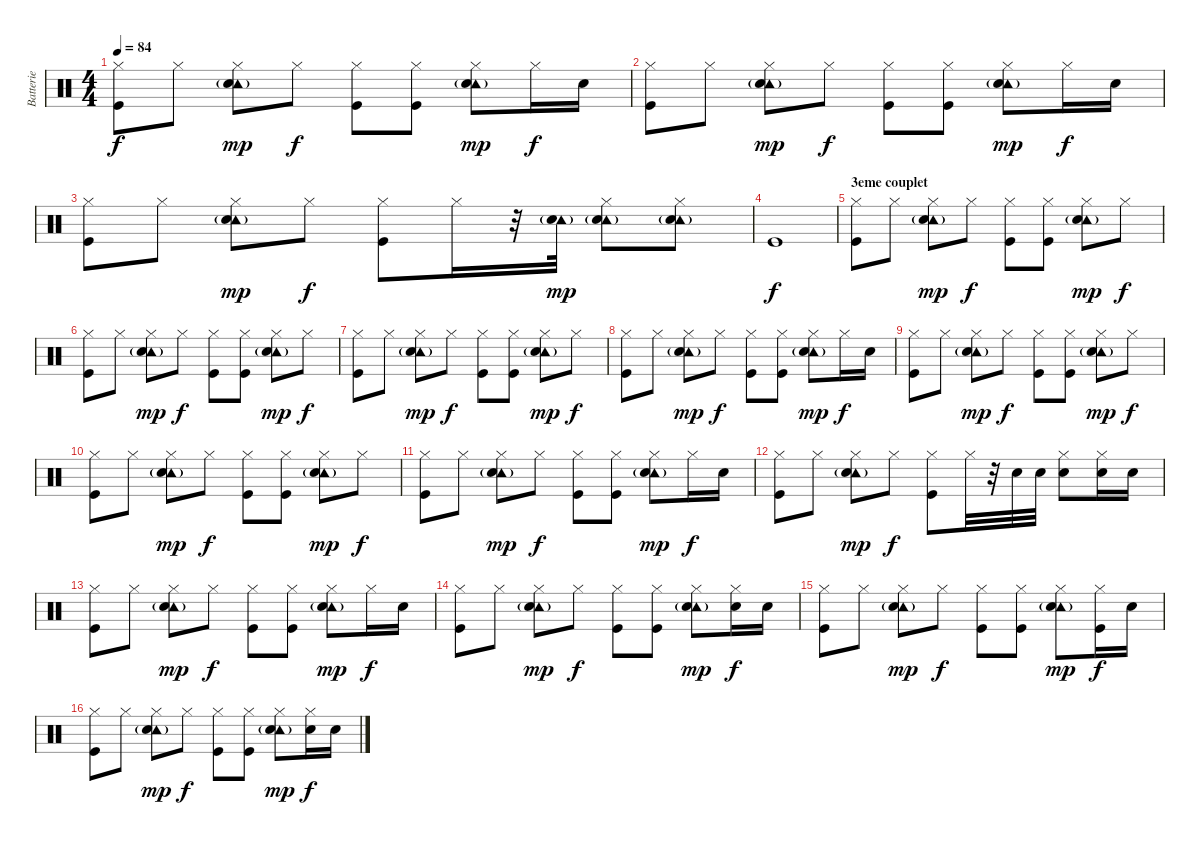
\track ("Batterie" "Batterie") {instrument percussion}
\staff {score}
\articulation defaults
\ts (4 4)
\tempo 84
\clef neutral
\ks c
("Hi-Hat (closed)" "Kick (hit)").8{dy f} "Hi-Hat (closed)".8 ("Hi-Hat (closed)" "Tambourine (hit)"{g} "Snare (hit) 2").8{dy mp} "Hi-Hat (closed)".8{dy f} ("Hi-Hat (closed)" "Kick (hit)").8 ("Hi-Hat (closed)" "Kick (hit)").8 ("Hi-Hat (closed)" "Tambourine (hit)"{g} "Snare (hit) 2").8{dy mp} "Hi-Hat (closed)".16{dy f} "Snare (hit) 2".16 |
("Hi-Hat (closed)" "Kick (hit)").8 "Hi-Hat (closed)".8 ("Hi-Hat (closed)" "Tambourine (hit)"{g} "Snare (hit) 2").8{dy mp} "Hi-Hat (closed)".8{dy f} ("Hi-Hat (closed)" "Kick (hit)").8 ("Hi-Hat (closed)" "Kick (hit)").8 ("Hi-Hat (closed)" "Tambourine (hit)"{g} "Snare (hit) 2").8{dy mp} "Hi-Hat (closed)".16{dy f} "Snare (hit) 2".16 |
("Hi-Hat (closed)" "Kick (hit)").8 "Hi-Hat (closed)".8 ("Hi-Hat (closed)" "Tambourine (hit)"{g} "Snare (hit) 2").8{dy mp} "Hi-Hat (closed)".8{dy f} ("Hi-Hat (closed)" "Kick (hit)").8 "Hi-Hat (closed)".16 r.32 ("Tambourine (hit)"{g} "Snare (hit) 2").32{dy mp} ("Hi-Hat (closed)" "Tambourine (hit)"{g} "Snare (hit) 2").8 ("Hi-Hat (closed)" "Tambourine (hit)"{g} "Snare (hit) 2").8 |
"Kick (hit)".1{dy f} |
\section ("" "3eme couplet")
("Hi-Hat (closed)" "Kick (hit)").8 "Hi-Hat (closed)".8 ("Hi-Hat (closed)" "Tambourine (hit)"{g} "Snare (hit) 2").8{dy mp} "Hi-Hat (closed)".8{dy f} ("Hi-Hat (closed)" "Kick (hit)").8 ("Hi-Hat (closed)" "Kick (hit)").8 ("Hi-Hat (closed)" "Tambourine (hit)"{g} "Snare (hit) 2").8{dy mp} "Hi-Hat (closed)".8{dy f} |
("Hi-Hat (closed)" "Kick (hit)").8 "Hi-Hat (closed)".8 ("Hi-Hat (closed)" "Tambourine (hit)"{g} "Snare (hit) 2").8{dy mp} "Hi-Hat (closed)".8{dy f} ("Hi-Hat (closed)" "Kick (hit)").8 ("Hi-Hat (closed)" "Kick (hit)").8 ("Hi-Hat (closed)" "Tambourine (hit)"{g} "Snare (hit) 2").8{dy mp} "Hi-Hat (closed)".8{dy f} |
("Hi-Hat (closed)" "Kick (hit)").8 "Hi-Hat (closed)".8 ("Hi-Hat (closed)" "Tambourine (hit)"{g} "Snare (hit) 2").8{dy mp} "Hi-Hat (closed)".8{dy f} ("Hi-Hat (closed)" "Kick (hit)").8 ("Hi-Hat (closed)" "Kick (hit)").8 ("Hi-Hat (closed)" "Tambourine (hit)"{g} "Snare (hit) 2").8{dy mp} "Hi-Hat (closed)".8{dy f} |
("Hi-Hat (closed)" "Kick (hit)").8 "Hi-Hat (closed)".8 ("Hi-Hat (closed)" "Tambourine (hit)"{g} "Snare (hit) 2").8{dy mp} "Hi-Hat (closed)".8{dy f} ("Hi-Hat (closed)" "Kick (hit)").8 ("Hi-Hat (closed)" "Kick (hit)").8 ("Hi-Hat (closed)" "Tambourine (hit)"{g} "Snare (hit) 2").8{dy mp} "Hi-Hat (closed)".16{dy f} "Snare (hit) 2".16 |
("Hi-Hat (closed)" "Kick (hit)").8 "Hi-Hat (closed)".8 ("Hi-Hat (closed)" "Tambourine (hit)"{g} "Snare (hit) 2").8{dy mp} "Hi-Hat (closed)".8{dy f} ("Hi-Hat (closed)" "Kick (hit)").8 ("Hi-Hat (closed)" "Kick (hit)").8 ("Hi-Hat (closed)" "Tambourine (hit)"{g} "Snare (hit) 2").8{dy mp} "Hi-Hat (closed)".8{dy f} |
("Hi-Hat (closed)" "Kick (hit)").8 "Hi-Hat (closed)".8 ("Hi-Hat (closed)" "Tambourine (hit)"{g} "Snare (hit) 2").8{dy mp} "Hi-Hat (closed)".8{dy f} ("Hi-Hat (closed)" "Kick (hit)").8 ("Hi-Hat (closed)" "Kick (hit)").8 ("Hi-Hat (closed)" "Tambourine (hit)"{g} "Snare (hit) 2").8{dy mp} "Hi-Hat (closed)".8{dy f} |
("Hi-Hat (closed)" "Kick (hit)").8 "Hi-Hat (closed)".8 ("Hi-Hat (closed)" "Tambourine (hit)"{g} "Snare (hit) 2").8{dy mp} "Hi-Hat (closed)".8{dy f} ("Hi-Hat (closed)" "Kick (hit)").8 ("Hi-Hat (closed)" "Kick (hit)").8 ("Hi-Hat (closed)" "Tambourine (hit)"{g} "Snare (hit) 2").8{dy mp} "Hi-Hat (closed)".16{dy f} "Snare (hit) 2".16 |
("Hi-Hat (closed)" "Kick (hit)").8 "Hi-Hat (closed)".8 ("Hi-Hat (closed)" "Tambourine (hit)"{g} "Snare (hit) 2").8{dy mp} "Hi-Hat (closed)".8{dy f} ("Hi-Hat (closed)" "Kick (hit)").8 "Hi-Hat (closed)".32 r.32 "Snare (hit) 2".32 "Snare (hit) 2".32 ("Hi-Hat (closed)" "Snare (hit) 2").8 ("Hi-Hat (closed)" "Snare (hit) 2").16 "Snare (hit) 2".16 |
\section ("" "")
("Hi-Hat (closed)" "Kick (hit)").8 "Hi-Hat (closed)".8 ("Hi-Hat (closed)" "Tambourine (hit)"{g} "Snare (hit) 2").8{dy mp} "Hi-Hat (closed)".8{dy f} ("Hi-Hat (closed)" "Kick (hit)").8 ("Hi-Hat (closed)" "Kick (hit)").8 ("Hi-Hat (closed)" "Tambourine (hit)"{g} "Snare (hit) 2").8{dy mp} "Hi-Hat (closed)".16{dy f} "Snare (hit) 2".16 |
("Hi-Hat (closed)" "Kick (hit)").8 "Hi-Hat (closed)".8 ("Hi-Hat (closed)" "Tambourine (hit)"{g} "Snare (hit) 2").8{dy mp} "Hi-Hat (closed)".8{dy f} ("Hi-Hat (closed)" "Kick (hit)").8 ("Hi-Hat (closed)" "Kick (hit)").8 ("Hi-Hat (closed)" "Tambourine (hit)"{g} "Snare (hit) 2").8{dy mp} ("Hi-Hat (closed)" "Snare (hit) 2").16{dy f} "Snare (hit) 2".16 |
("Hi-Hat (closed)" "Kick (hit)").8 "Hi-Hat (closed)".8 ("Hi-Hat (closed)" "Tambourine (hit)"{g} "Snare (hit) 2").8{dy mp} "Hi-Hat (closed)".8{dy f} ("Hi-Hat (closed)" "Kick (hit)").8 ("Hi-Hat (closed)" "Kick (hit)").8 ("Hi-Hat (closed)" "Tambourine (hit)"{g} "Snare (hit) 2").8{dy mp} ("Hi-Hat (closed)" "Kick (hit)").16{dy f} "Snare (hit) 2".16 |
("Hi-Hat (closed)" "Kick (hit)").8 "Hi-Hat (closed)".8 ("Hi-Hat (closed)" "Tambourine (hit)"{g} "Snare (hit) 2").8{dy mp} "Hi-Hat (closed)".8{dy f} ("Hi-Hat (closed)" "Kick (hit)").8 ("Hi-Hat (closed)" "Kick (hit)").8 ("Hi-Hat (closed)" "Tambourine (hit)"{g} "Snare (hit) 2").8{dy mp} ("Hi-Hat (closed)" "Snare (hit) 2").16{dy f} "Snare (hit) 2".16
